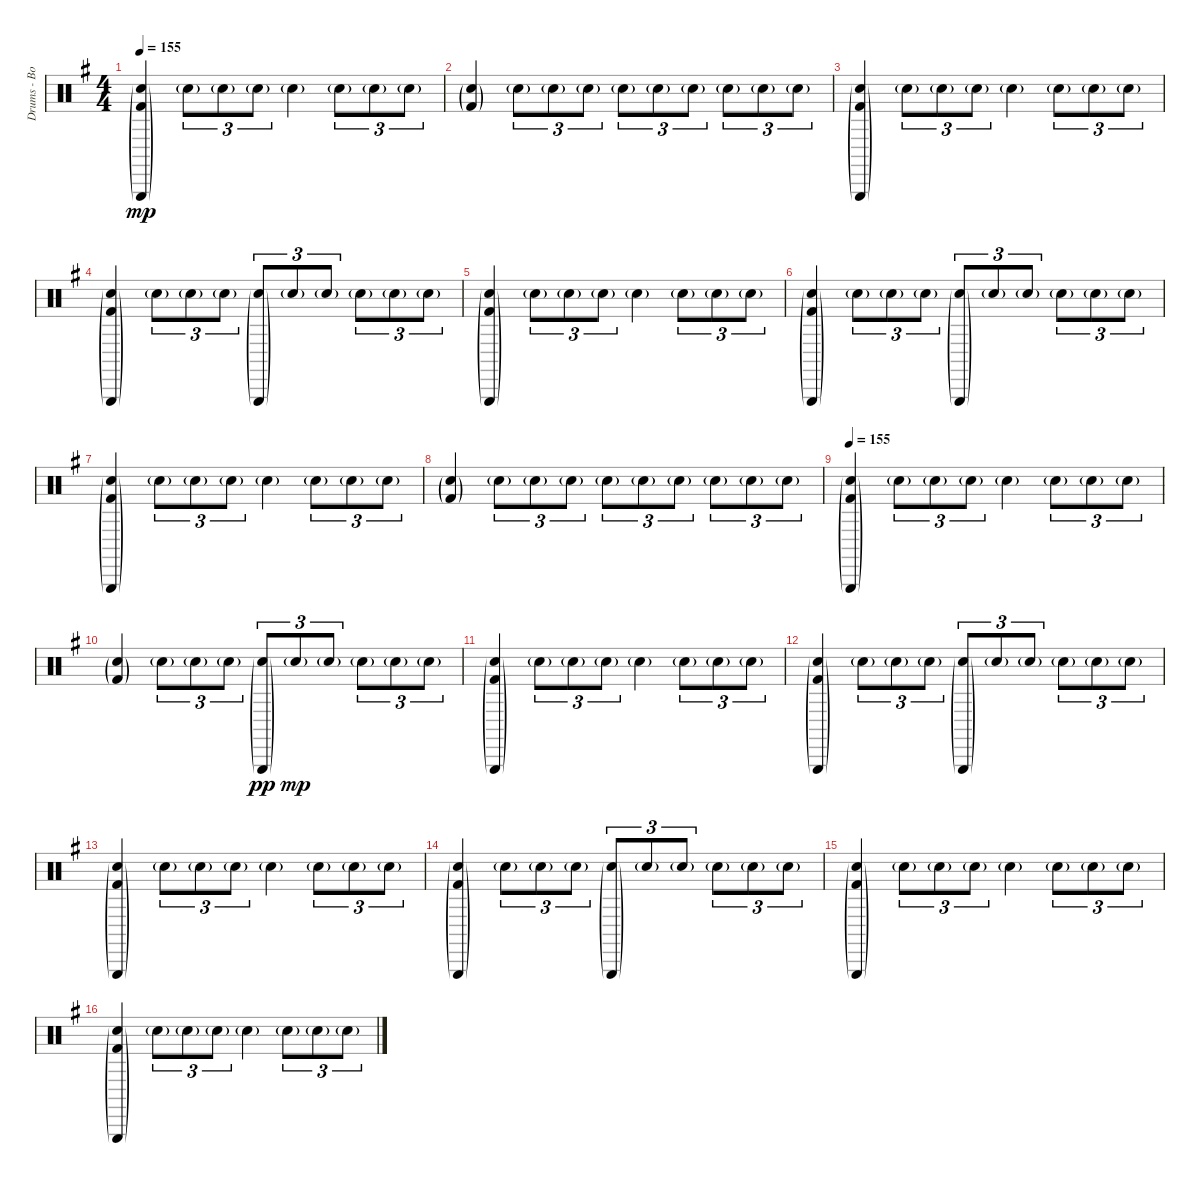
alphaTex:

\track ("Drums - Bob Bryar" "Drums - Bo") {instrument percussion}
\staff {score}
\articulation defaults
\ts (4 4)
\tempo 155
\clef neutral
\ks eminor
("Electric Snare (hit)"{g} "Kick (hit) 2"{g} "Triangle (hit)"{g}).4{dy mp} "Electric Snare (hit)"{g}.8{tu (3 2)} "Electric Snare (hit)"{g}.8{tu (3 2)} "Electric Snare (hit)"{g}.8{tu (3 2)} "Electric Snare (hit)"{g}.4 "Electric Snare (hit)"{g}.8{tu (3 2)} "Electric Snare (hit)"{g}.8{tu (3 2)} "Electric Snare (hit)"{g}.8{tu (3 2)} |
("Electric Snare (hit)"{g} "Kick (hit) 2"{g}).4 "Electric Snare (hit)"{g}.8{tu (3 2)} "Electric Snare (hit)"{g}.8{tu (3 2)} "Electric Snare (hit)"{g}.8{tu (3 2)} "Electric Snare (hit)"{g}.8{tu (3 2)} "Electric Snare (hit)"{g}.8{tu (3 2)} "Electric Snare (hit)"{g}.8{tu (3 2)} "Electric Snare (hit)"{g}.8{tu (3 2)} "Electric Snare (hit)"{g}.8{tu (3 2)} "Electric Snare (hit)"{g}.8{tu (3 2)} |
("Electric Snare (hit)"{g} "Kick (hit) 2"{g} "Triangle (hit)"{g}).4 "Electric Snare (hit)"{g}.8{tu (3 2)} "Electric Snare (hit)"{g}.8{tu (3 2)} "Electric Snare (hit)"{g}.8{tu (3 2)} "Electric Snare (hit)"{g}.4 "Electric Snare (hit)"{g}.8{tu (3 2)} "Electric Snare (hit)"{g}.8{tu (3 2)} "Electric Snare (hit)"{g}.8{tu (3 2)} |
("Electric Snare (hit)"{g} "Kick (hit) 2"{g} "Triangle (hit)"{g}).4 "Electric Snare (hit)"{g}.8{tu (3 2)} "Electric Snare (hit)"{g}.8{tu (3 2)} "Electric Snare (hit)"{g}.8{tu (3 2)} ("Electric Snare (hit)"{g} "Triangle (hit)"{g}).8{tu (3 2)} "Electric Snare (hit)"{g}.8{tu (3 2)} "Electric Snare (hit)"{g}.8{tu (3 2)} "Electric Snare (hit)"{g}.8{tu (3 2)} "Electric Snare (hit)"{g}.8{tu (3 2)} "Electric Snare (hit)"{g}.8{tu (3 2)} |
("Electric Snare (hit)"{g} "Kick (hit) 2"{g} "Triangle (hit)"{g}).4 "Electric Snare (hit)"{g}.8{tu (3 2)} "Electric Snare (hit)"{g}.8{tu (3 2)} "Electric Snare (hit)"{g}.8{tu (3 2)} "Electric Snare (hit)"{g}.4 "Electric Snare (hit)"{g}.8{tu (3 2)} "Electric Snare (hit)"{g}.8{tu (3 2)} "Electric Snare (hit)"{g}.8{tu (3 2)} |
("Electric Snare (hit)"{g} "Kick (hit) 2"{g} "Triangle (hit)"{g}).4 "Electric Snare (hit)"{g}.8{tu (3 2)} "Electric Snare (hit)"{g}.8{tu (3 2)} "Electric Snare (hit)"{g}.8{tu (3 2)} ("Electric Snare (hit)"{g} "Triangle (hit)"{g}).8{tu (3 2)} "Electric Snare (hit)"{g}.8{tu (3 2)} "Electric Snare (hit)"{g}.8{tu (3 2)} "Electric Snare (hit)"{g}.8{tu (3 2)} "Electric Snare (hit)"{g}.8{tu (3 2)} "Electric Snare (hit)"{g}.8{tu (3 2)} |
("Electric Snare (hit)"{g} "Kick (hit) 2"{g} "Triangle (hit)"{g}).4 "Electric Snare (hit)"{g}.8{tu (3 2)} "Electric Snare (hit)"{g}.8{tu (3 2)} "Electric Snare (hit)"{g}.8{tu (3 2)} "Electric Snare (hit)"{g}.4 "Electric Snare (hit)"{g}.8{tu (3 2)} "Electric Snare (hit)"{g}.8{tu (3 2)} "Electric Snare (hit)"{g}.8{tu (3 2)} |
("Electric Snare (hit)"{g} "Kick (hit) 2"{g}).4 "Electric Snare (hit)"{g}.8{tu (3 2)} "Electric Snare (hit)"{g}.8{tu (3 2)} "Electric Snare (hit)"{g}.8{tu (3 2)} "Electric Snare (hit)"{g}.8{tu (3 2)} "Electric Snare (hit)"{g}.8{tu (3 2)} "Electric Snare (hit)"{g}.8{tu (3 2)} "Electric Snare (hit)"{g}.8{tu (3 2)} "Electric Snare (hit)"{g}.8{tu (3 2)} "Electric Snare (hit)"{g}.8{tu (3 2)} |
\tempo 155
("Electric Snare (hit)"{g} "Kick (hit) 2"{g} "Triangle (hit)"{g}).4 "Electric Snare (hit)"{g}.8{tu (3 2)} "Electric Snare (hit)"{g}.8{tu (3 2)} "Electric Snare (hit)"{g}.8{tu (3 2)} "Electric Snare (hit)"{g}.4 "Electric Snare (hit)"{g}.8{tu (3 2)} "Electric Snare (hit)"{g}.8{tu (3 2)} "Electric Snare (hit)"{g}.8{tu (3 2)} |
("Electric Snare (hit)"{g} "Kick (hit) 2"{g}).4 "Electric Snare (hit)"{g}.8{tu (3 2)} "Electric Snare (hit)"{g}.8{tu (3 2)} "Electric Snare (hit)"{g}.8{tu (3 2)} ("Electric Snare (hit)"{g} "Triangle (hit)"{g}).8{tu (3 2) dy pp} "Electric Snare (hit)"{g}.8{tu (3 2) dy mp} "Electric Snare (hit)"{g}.8{tu (3 2)} "Electric Snare (hit)"{g}.8{tu (3 2)} "Electric Snare (hit)"{g}.8{tu (3 2)} "Electric Snare (hit)"{g}.8{tu (3 2)} |
("Electric Snare (hit)"{g} "Kick (hit) 2"{g} "Triangle (hit)"{g}).4 "Electric Snare (hit)"{g}.8{tu (3 2)} "Electric Snare (hit)"{g}.8{tu (3 2)} "Electric Snare (hit)"{g}.8{tu (3 2)} "Electric Snare (hit)"{g}.4 "Electric Snare (hit)"{g}.8{tu (3 2)} "Electric Snare (hit)"{g}.8{tu (3 2)} "Electric Snare (hit)"{g}.8{tu (3 2)} |
("Electric Snare (hit)"{g} "Kick (hit) 2"{g} "Triangle (hit)"{g}).4 "Electric Snare (hit)"{g}.8{tu (3 2)} "Electric Snare (hit)"{g}.8{tu (3 2)} "Electric Snare (hit)"{g}.8{tu (3 2)} ("Electric Snare (hit)"{g} "Triangle (hit)"{g}).8{tu (3 2)} "Electric Snare (hit)"{g}.8{tu (3 2)} "Electric Snare (hit)"{g}.8{tu (3 2)} "Electric Snare (hit)"{g}.8{tu (3 2)} "Electric Snare (hit)"{g}.8{tu (3 2)} "Electric Snare (hit)"{g}.8{tu (3 2)} |
("Electric Snare (hit)"{g} "Kick (hit) 2"{g} "Triangle (hit)"{g}).4 "Electric Snare (hit)"{g}.8{tu (3 2)} "Electric Snare (hit)"{g}.8{tu (3 2)} "Electric Snare (hit)"{g}.8{tu (3 2)} "Electric Snare (hit)"{g}.4 "Electric Snare (hit)"{g}.8{tu (3 2)} "Electric Snare (hit)"{g}.8{tu (3 2)} "Electric Snare (hit)"{g}.8{tu (3 2)} |
("Electric Snare (hit)"{g} "Kick (hit) 2"{g} "Triangle (hit)"{g}).4 "Electric Snare (hit)"{g}.8{tu (3 2)} "Electric Snare (hit)"{g}.8{tu (3 2)} "Electric Snare (hit)"{g}.8{tu (3 2)} ("Electric Snare (hit)"{g} "Triangle (hit)"{g}).8{tu (3 2)} "Electric Snare (hit)"{g}.8{tu (3 2)} "Electric Snare (hit)"{g}.8{tu (3 2)} "Electric Snare (hit)"{g}.8{tu (3 2)} "Electric Snare (hit)"{g}.8{tu (3 2)} "Electric Snare (hit)"{g}.8{tu (3 2)} |
("Electric Snare (hit)"{g} "Kick (hit) 2"{g} "Triangle (hit)"{g}).4 "Electric Snare (hit)"{g}.8{tu (3 2)} "Electric Snare (hit)"{g}.8{tu (3 2)} "Electric Snare (hit)"{g}.8{tu (3 2)} "Electric Snare (hit)"{g}.4 "Electric Snare (hit)"{g}.8{tu (3 2)} "Electric Snare (hit)"{g}.8{tu (3 2)} "Electric Snare (hit)"{g}.8{tu (3 2)} |
("Electric Snare (hit)"{g} "Kick (hit) 2"{g} "Triangle (hit)"{g}).4 "Electric Snare (hit)"{g}.8{tu (3 2)} "Electric Snare (hit)"{g}.8{tu (3 2)} "Electric Snare (hit)"{g}.8{tu (3 2)} "Electric Snare (hit)"{g}.4 "Electric Snare (hit)"{g}.8{tu (3 2)} "Electric Snare (hit)"{g}.8{tu (3 2)} "Electric Snare (hit)"{g}.8{tu (3 2)}
